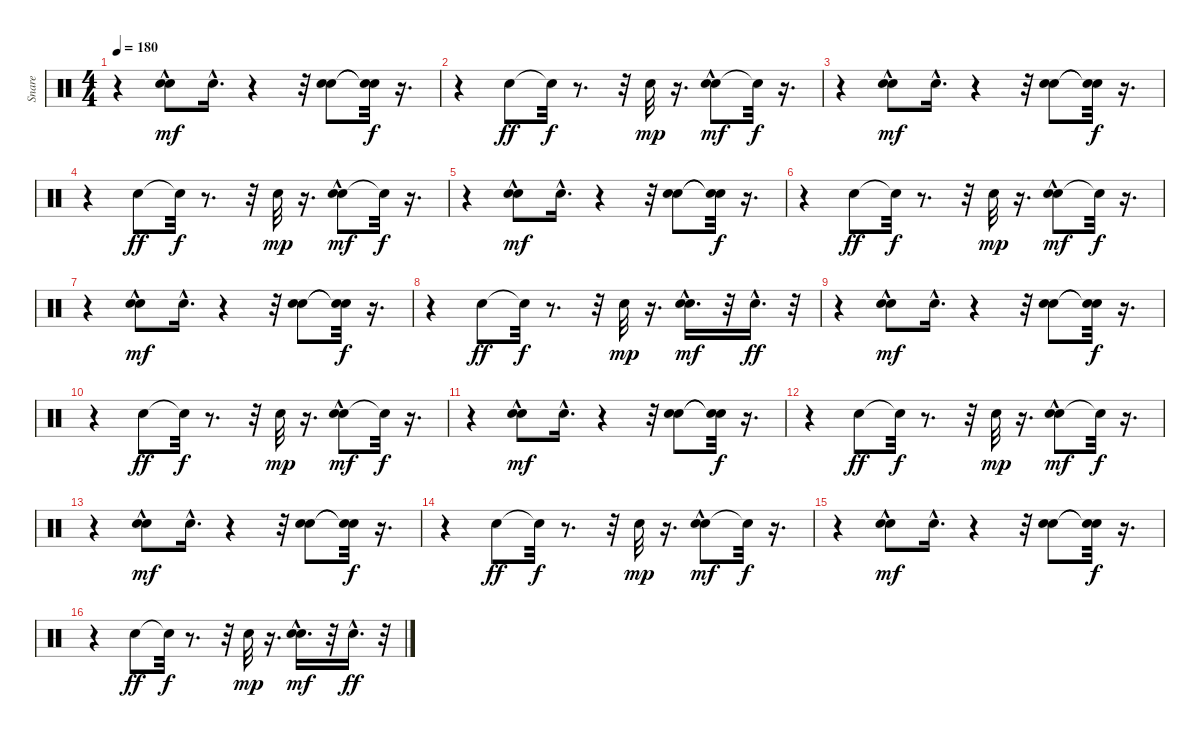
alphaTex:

\track ("Snare" "Snare") {instrument percussion}
\staff {score}
\articulation defaults
\ts (4 4)
\tempo 180
\clef neutral
\ks c
r.4{dy ff} ("Snare (hit) 2" "Hand Clap (hit)"{hac}).8{dy mf} "Hand Clap (hit)"{hac}.16{d} r.4 r.32 ("Snare (hit) 2" "Hand Clap (hit)").8 ("Snare (hit)"{t} "Snare (hit)"{t}).32{dy f} r.16{d} |
r.4 "Snare (hit) 2".8{dy ff} "Snare (hit)"{t}.32{dy f} r.8{d} r.32 "Hand Clap (hit)".32{dy mp} r.16{d} ("Snare (hit) 2" "Hand Clap (hit)"{hac}).8{dy mf} "Snare (hit)"{t}.32{dy f} r.16{d} |
r.4 ("Snare (hit) 2" "Hand Clap (hit)"{hac}).8{dy mf} "Hand Clap (hit)"{hac}.16{d} r.4 r.32 ("Snare (hit) 2" "Hand Clap (hit)").8 ("Snare (hit)"{t} "Snare (hit)"{t}).32{dy f} r.16{d} |
r.4 "Snare (hit) 2".8{dy ff} "Snare (hit)"{t}.32{dy f} r.8{d} r.32 "Hand Clap (hit)".32{dy mp} r.16{d} ("Snare (hit) 2" "Hand Clap (hit)"{hac}).8{dy mf} "Snare (hit)"{t}.32{dy f} r.16{d} |
r.4 ("Snare (hit) 2" "Hand Clap (hit)"{hac}).8{dy mf} "Hand Clap (hit)"{hac}.16{d} r.4 r.32 ("Snare (hit) 2" "Hand Clap (hit)").8 ("Snare (hit)"{t} "Snare (hit)"{t}).32{dy f} r.16{d} |
r.4 "Snare (hit) 2".8{dy ff} "Snare (hit)"{t}.32{dy f} r.8{d} r.32 "Hand Clap (hit)".32{dy mp} r.16{d} ("Snare (hit) 2" "Hand Clap (hit)"{hac}).8{dy mf} "Snare (hit)"{t}.32{dy f} r.16{d} |
r.4 ("Snare (hit) 2" "Hand Clap (hit)"{hac}).8{dy mf} "Hand Clap (hit)"{hac}.16{d} r.4 r.32 ("Snare (hit) 2" "Hand Clap (hit)").8 ("Snare (hit)"{t} "Snare (hit)"{t}).32{dy f} r.16{d} |
r.4 "Snare (hit) 2".8{dy ff} "Snare (hit)"{t}.32{dy f} r.8{d} r.32 "Hand Clap (hit)".32{dy mp} r.16{d} ("Snare (hit) 2"{hac} "Hand Clap (hit)"{hac}).16{d dy mf} r.32 "Snare (hit) 2"{hac}.16{d dy ff} r.32 |
r.4 ("Snare (hit) 2" "Hand Clap (hit)"{hac}).8{dy mf} "Hand Clap (hit)"{hac}.16{d} r.4 r.32 ("Snare (hit) 2" "Hand Clap (hit)").8 ("Snare (hit)"{t} "Snare (hit)"{t}).32{dy f} r.16{d} |
r.4 "Snare (hit) 2".8{dy ff} "Snare (hit)"{t}.32{dy f} r.8{d} r.32 "Hand Clap (hit)".32{dy mp} r.16{d} ("Snare (hit) 2" "Hand Clap (hit)"{hac}).8{dy mf} "Snare (hit)"{t}.32{dy f} r.16{d} |
r.4 ("Snare (hit) 2" "Hand Clap (hit)"{hac}).8{dy mf} "Hand Clap (hit)"{hac}.16{d} r.4 r.32 ("Snare (hit) 2" "Hand Clap (hit)").8 ("Snare (hit)"{t} "Snare (hit)"{t}).32{dy f} r.16{d} |
r.4 "Snare (hit) 2".8{dy ff} "Snare (hit)"{t}.32{dy f} r.8{d} r.32 "Hand Clap (hit)".32{dy mp} r.16{d} ("Snare (hit) 2" "Hand Clap (hit)"{hac}).8{dy mf} "Snare (hit)"{t}.32{dy f} r.16{d} |
r.4 ("Snare (hit) 2" "Hand Clap (hit)"{hac}).8{dy mf} "Hand Clap (hit)"{hac}.16{d} r.4 r.32 ("Snare (hit) 2" "Hand Clap (hit)").8 ("Snare (hit)"{t} "Snare (hit)"{t}).32{dy f} r.16{d} |
r.4 "Snare (hit) 2".8{dy ff} "Snare (hit)"{t}.32{dy f} r.8{d} r.32 "Hand Clap (hit)".32{dy mp} r.16{d} ("Snare (hit) 2" "Hand Clap (hit)"{hac}).8{dy mf} "Snare (hit)"{t}.32{dy f} r.16{d} |
r.4 ("Snare (hit) 2" "Hand Clap (hit)"{hac}).8{dy mf} "Hand Clap (hit)"{hac}.16{d} r.4 r.32 ("Snare (hit) 2" "Hand Clap (hit)").8 ("Snare (hit)"{t} "Snare (hit)"{t}).32{dy f} r.16{d} |
r.4 "Snare (hit) 2".8{dy ff} "Snare (hit)"{t}.32{dy f} r.8{d} r.32 "Hand Clap (hit)".32{dy mp} r.16{d} ("Snare (hit) 2"{hac} "Hand Clap (hit)"{hac}).16{d dy mf} r.32 "Snare (hit) 2"{hac}.16{d dy ff} r.32
